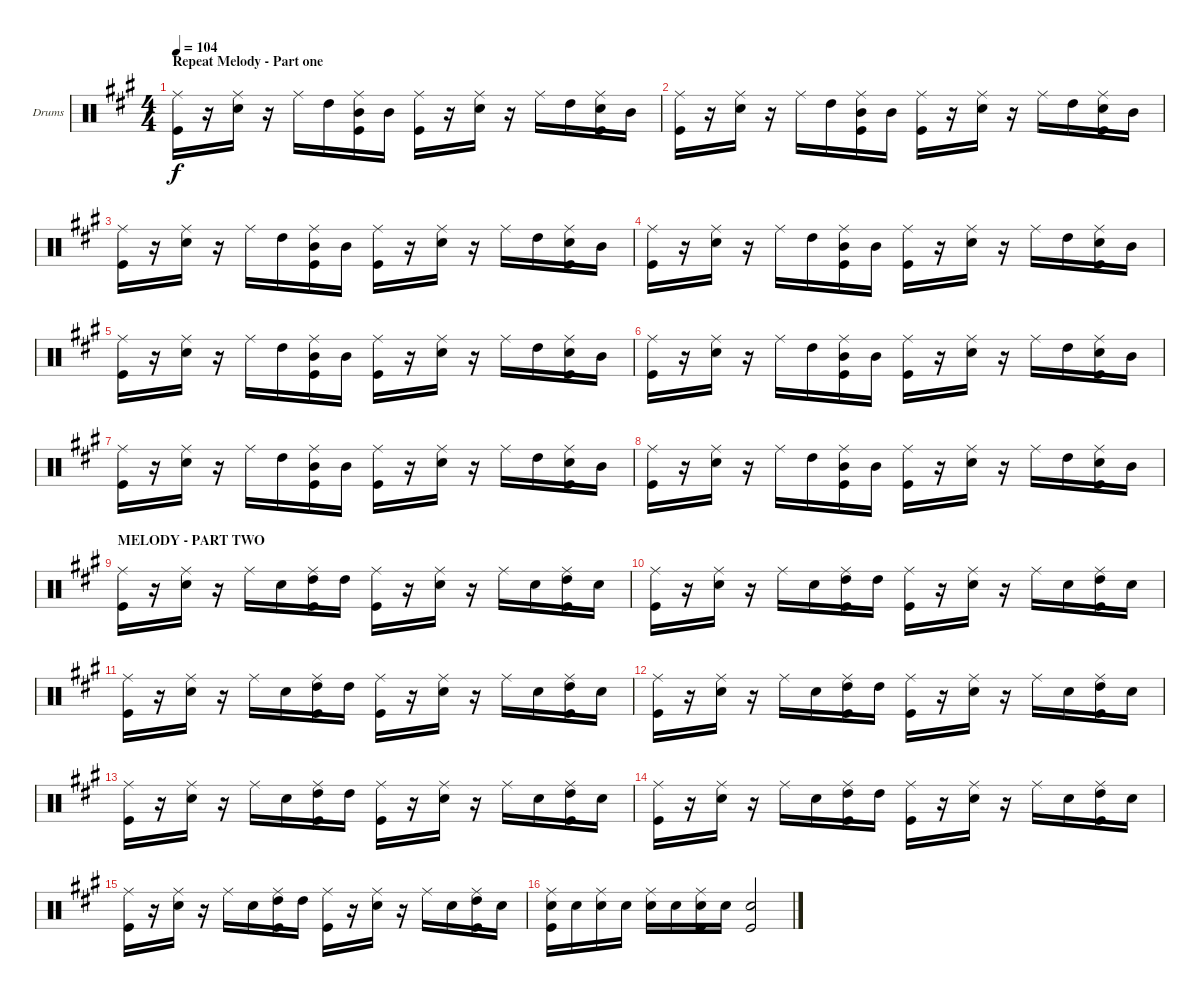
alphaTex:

\bracketExtendMode groupsimilarinstruments
\firstSystemTrackNameOrientation horizontal
\otherSystemsTrackNameOrientation horizontal
\track ("Drumkit" "Drums") {instrument percussion}
\staff {score}
\articulation defaults
\ts (4 4)
\section ("" "Repeat Melody - Part one")
\tempo 104
\clef neutral
\ks a
("Ride (middle)" "Kick (hit)").16{dy f} r.16 ("Ride (middle)" "Snare (hit) 2").16 r.16 "Ride (middle)".16 "High Tom (hit)".16 ("Ride (middle)" "Mid Tom (hit)" "Kick (hit)").16 "Mid Tom (hit)".16 ("Ride (middle)" "Kick (hit)").16 r.16 ("Ride (middle)" "Snare (hit) 2").16 r.16 "Ride (middle)".16 "High Tom (hit)".16 ("Ride (middle)" "Snare (hit) 2" "Kick (hit)").16 "Mid Tom (hit)".16 |
("Ride (middle)" "Kick (hit)").16 r.16 ("Ride (middle)" "Snare (hit) 2").16 r.16 "Ride (middle)".16 "High Tom (hit)".16 ("Ride (middle)" "Mid Tom (hit)" "Kick (hit)").16 "Mid Tom (hit)".16 ("Ride (middle)" "Kick (hit)").16 r.16 ("Ride (middle)" "Snare (hit) 2").16 r.16 "Ride (middle)".16 "High Tom (hit)".16 ("Ride (middle)" "Snare (hit) 2" "Kick (hit)").16 "Mid Tom (hit)".16 |
("Ride (middle)" "Kick (hit)").16 r.16 ("Ride (middle)" "Snare (hit) 2").16 r.16 "Ride (middle)".16 "High Tom (hit)".16 ("Ride (middle)" "Mid Tom (hit)" "Kick (hit)").16 "Mid Tom (hit)".16 ("Ride (middle)" "Kick (hit)").16 r.16 ("Ride (middle)" "Snare (hit) 2").16 r.16 "Ride (middle)".16 "High Tom (hit)".16 ("Ride (middle)" "Snare (hit) 2" "Kick (hit)").16 "Mid Tom (hit)".16 |
("Ride (middle)" "Kick (hit)").16 r.16 ("Ride (middle)" "Snare (hit) 2").16 r.16 "Ride (middle)".16 "High Tom (hit)".16 ("Ride (middle)" "Mid Tom (hit)" "Kick (hit)").16 "Mid Tom (hit)".16 ("Ride (middle)" "Kick (hit)").16 r.16 ("Ride (middle)" "Snare (hit) 2").16 r.16 "Ride (middle)".16 "High Tom (hit)".16 ("Ride (middle)" "Snare (hit) 2" "Kick (hit)").16 "Mid Tom (hit)".16 |
("Ride (middle)" "Kick (hit)").16 r.16 ("Ride (middle)" "Snare (hit) 2").16 r.16 "Ride (middle)".16 "High Tom (hit)".16 ("Ride (middle)" "Mid Tom (hit)" "Kick (hit)").16 "Mid Tom (hit)".16 ("Ride (middle)" "Kick (hit)").16 r.16 ("Ride (middle)" "Snare (hit) 2").16 r.16 "Ride (middle)".16 "High Tom (hit)".16 ("Ride (middle)" "Snare (hit) 2" "Kick (hit)").16 "Mid Tom (hit)".16 |
("Ride (middle)" "Kick (hit)").16 r.16 ("Ride (middle)" "Snare (hit) 2").16 r.16 "Ride (middle)".16 "High Tom (hit)".16 ("Ride (middle)" "Mid Tom (hit)" "Kick (hit)").16 "Mid Tom (hit)".16 ("Ride (middle)" "Kick (hit)").16 r.16 ("Ride (middle)" "Snare (hit) 2").16 r.16 "Ride (middle)".16 "High Tom (hit)".16 ("Ride (middle)" "Snare (hit) 2" "Kick (hit)").16 "Mid Tom (hit)".16 |
("Ride (middle)" "Kick (hit)").16 r.16 ("Ride (middle)" "Snare (hit) 2").16 r.16 "Ride (middle)".16 "High Tom (hit)".16 ("Ride (middle)" "Mid Tom (hit)" "Kick (hit)").16 "Mid Tom (hit)".16 ("Ride (middle)" "Kick (hit)").16 r.16 ("Ride (middle)" "Snare (hit) 2").16 r.16 "Ride (middle)".16 "High Tom (hit)".16 ("Ride (middle)" "Snare (hit) 2" "Kick (hit)").16 "Mid Tom (hit)".16 |
("Ride (middle)" "Kick (hit)").16 r.16 ("Ride (middle)" "Snare (hit) 2").16 r.16 "Ride (middle)".16 "High Tom (hit)".16 ("Ride (middle)" "Mid Tom (hit)" "Kick (hit)").16 "Mid Tom (hit)".16 ("Ride (middle)" "Kick (hit)").16 r.16 ("Ride (middle)" "Snare (hit) 2").16 r.16 "Ride (middle)".16 "High Tom (hit)".16 ("Ride (middle)" "Snare (hit) 2" "Kick (hit)").16 "Mid Tom (hit)".16 |
\section ("" "MELODY - PART TWO")
("Ride (middle)" "Kick (hit)").16 r.16 ("Ride (middle)" "Snare (hit) 2").16 r.16 "Ride (middle)".16 "Snare (hit) 2".16 ("Ride (middle)" "High Tom (hit)" "Kick (hit)").16 "High Tom (hit)".16 ("Ride (middle)" "Kick (hit)").16 r.16 ("Ride (middle)" "Snare (hit) 2").16 r.16 "Ride (middle)".16 "Snare (hit) 2".16 ("Ride (middle)" "High Tom (hit)" "Kick (hit)").16 "Snare (hit) 2".16 |
("Ride (middle)" "Kick (hit)").16 r.16 ("Ride (middle)" "Snare (hit) 2").16 r.16 "Ride (middle)".16 "Snare (hit) 2".16 ("Ride (middle)" "High Tom (hit)" "Kick (hit)").16 "High Tom (hit)".16 ("Ride (middle)" "Kick (hit)").16 r.16 ("Ride (middle)" "Snare (hit) 2").16 r.16 "Ride (middle)".16 "Snare (hit) 2".16 ("Ride (middle)" "High Tom (hit)" "Kick (hit)").16 "Snare (hit) 2".16 |
("Ride (middle)" "Kick (hit)").16 r.16 ("Ride (middle)" "Snare (hit) 2").16 r.16 "Ride (middle)".16 "Snare (hit) 2".16 ("Ride (middle)" "High Tom (hit)" "Kick (hit)").16 "High Tom (hit)".16 ("Ride (middle)" "Kick (hit)").16 r.16 ("Ride (middle)" "Snare (hit) 2").16 r.16 "Ride (middle)".16 "Snare (hit) 2".16 ("Ride (middle)" "High Tom (hit)" "Kick (hit)").16 "Snare (hit) 2".16 |
("Ride (middle)" "Kick (hit)").16 r.16 ("Ride (middle)" "Snare (hit) 2").16 r.16 "Ride (middle)".16 "Snare (hit) 2".16 ("Ride (middle)" "High Tom (hit)" "Kick (hit)").16 "High Tom (hit)".16 ("Ride (middle)" "Kick (hit)").16 r.16 ("Ride (middle)" "Snare (hit) 2").16 r.16 "Ride (middle)".16 "Snare (hit) 2".16 ("Ride (middle)" "High Tom (hit)" "Kick (hit)").16 "Snare (hit) 2".16 |
("Ride (middle)" "Kick (hit)").16 r.16 ("Ride (middle)" "Snare (hit) 2").16 r.16 "Ride (middle)".16 "Snare (hit) 2".16 ("Ride (middle)" "High Tom (hit)" "Kick (hit)").16 "High Tom (hit)".16 ("Ride (middle)" "Kick (hit)").16 r.16 ("Ride (middle)" "Snare (hit) 2").16 r.16 "Ride (middle)".16 "Snare (hit) 2".16 ("Ride (middle)" "High Tom (hit)" "Kick (hit)").16 "Snare (hit) 2".16 |
("Ride (middle)" "Kick (hit)").16 r.16 ("Ride (middle)" "Snare (hit) 2").16 r.16 "Ride (middle)".16 "Snare (hit) 2".16 ("Ride (middle)" "High Tom (hit)" "Kick (hit)").16 "High Tom (hit)".16 ("Ride (middle)" "Kick (hit)").16 r.16 ("Ride (middle)" "Snare (hit) 2").16 r.16 "Ride (middle)".16 "Snare (hit) 2".16 ("Ride (middle)" "High Tom (hit)" "Kick (hit)").16 "Snare (hit) 2".16 |
("Ride (middle)" "Kick (hit)").16 r.16 ("Ride (middle)" "Snare (hit) 2").16 r.16 "Ride (middle)".16 "Snare (hit) 2".16 ("Ride (middle)" "High Tom (hit)" "Kick (hit)").16 "High Tom (hit)".16 ("Ride (middle)" "Kick (hit)").16 r.16 ("Ride (middle)" "Snare (hit) 2").16 r.16 "Ride (middle)".16 "Snare (hit) 2".16 ("Ride (middle)" "High Tom (hit)" "Kick (hit)").16 "Snare (hit) 2".16 |
("Ride (middle)" "Snare (hit) 2" "Kick (hit)").16 "Snare (hit) 2".16 ("Ride (middle)" "Snare (hit) 2").16 "Snare (hit) 2".16 ("Ride (middle)" "Snare (hit) 2").16 "Snare (hit) 2".16 ("Ride (middle)" "Snare (hit) 2" "Kick (hit)").16 "Snare (hit) 2".16 ("Snare (hit) 2" "Kick (hit)").2
